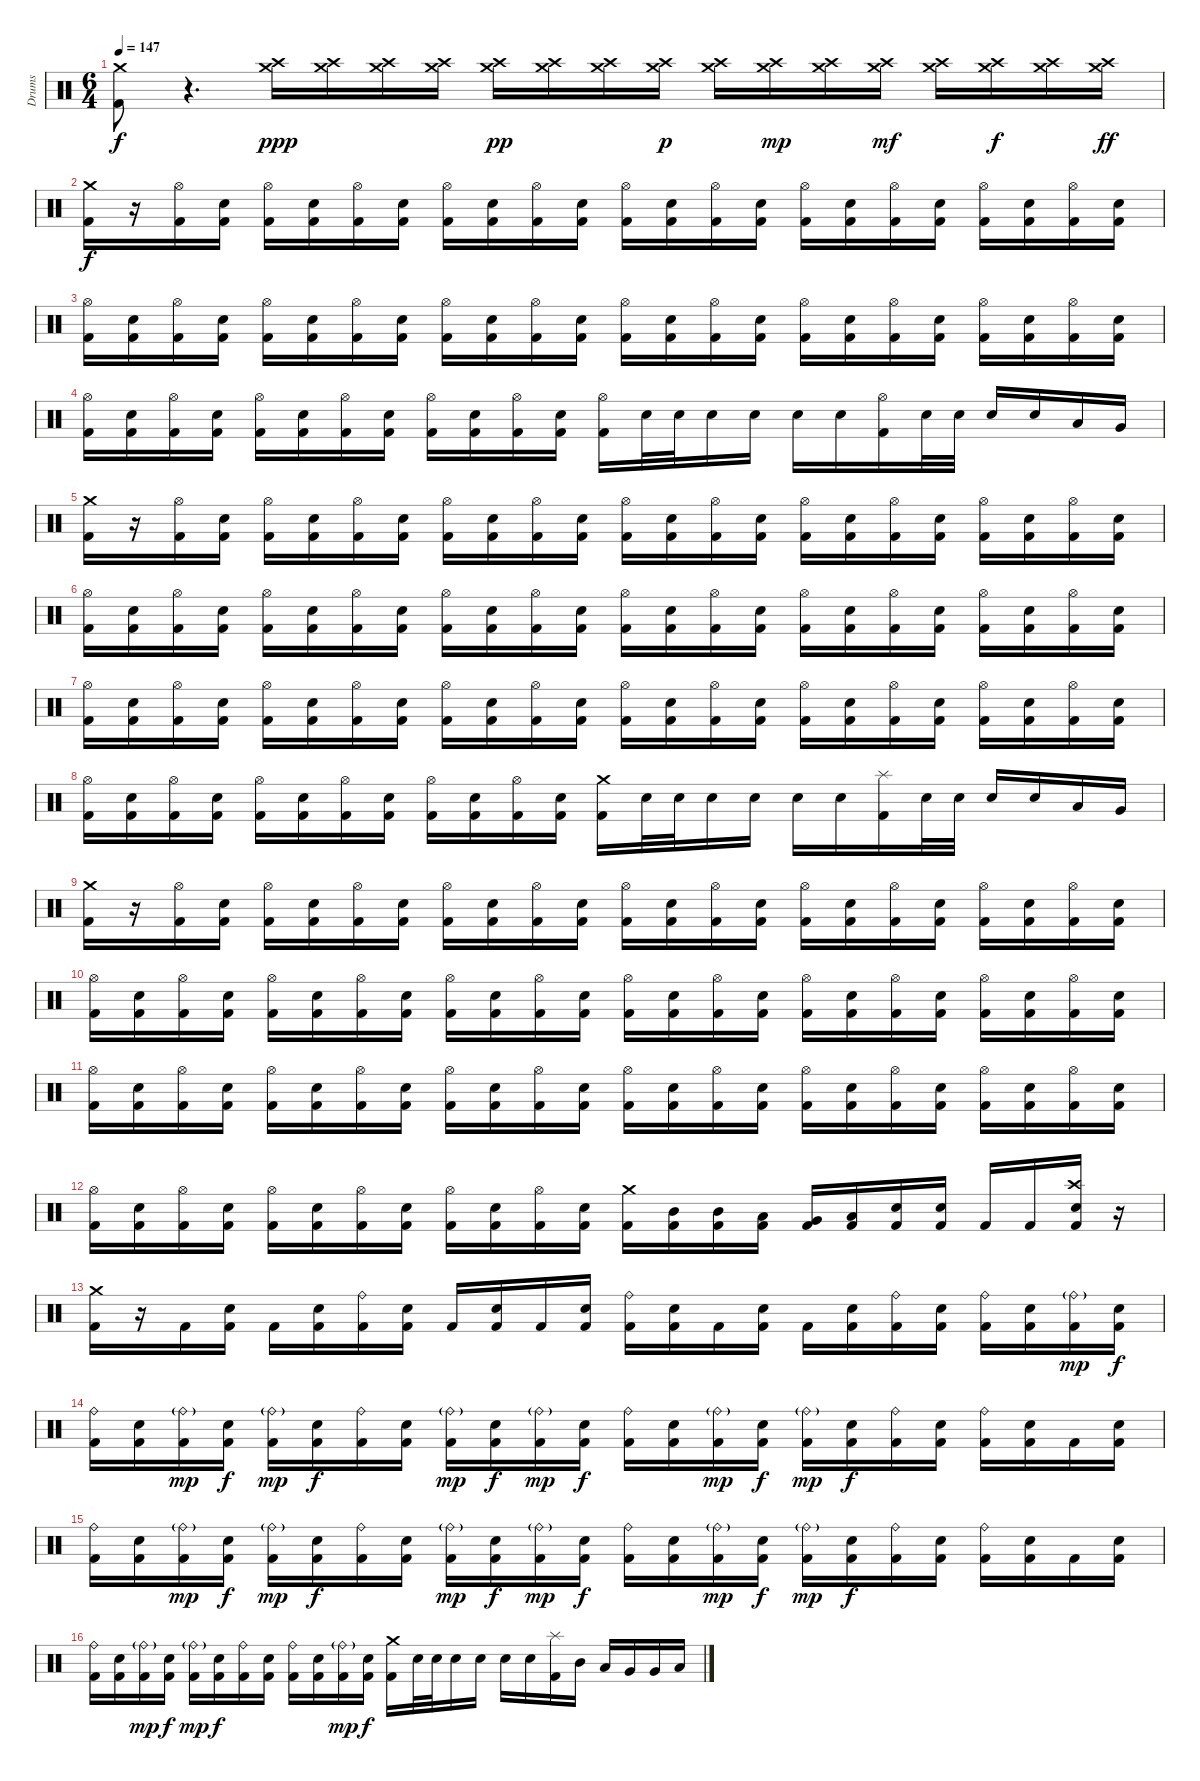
\track ("Drums" "Drums") {instrument percussion}
\staff {score}
\articulation defaults
\ts (6 4)
\tempo 147
\clef neutral
\ks c
("Crash medium (hit)" "Kick (hit) 2").8{dy f} r.4{d volume 0} ("Crash medium (hit)" "Crash high (hit)").16{dy ppp volume 16} ("Crash medium (hit)" "Crash high (hit)").16 ("Crash medium (hit)" "Crash high (hit)").16 ("Crash medium (hit)" "Crash high (hit)").16 ("Crash medium (hit)" "Crash high (hit)").16{dy pp} ("Crash medium (hit)" "Crash high (hit)").16 ("Crash medium (hit)" "Crash high (hit)").16 ("Crash medium (hit)" "Crash high (hit)").16{dy p} ("Crash medium (hit)" "Crash high (hit)").16 ("Crash medium (hit)" "Crash high (hit)").16{dy mp} ("Crash medium (hit)" "Crash high (hit)").16 ("Crash medium (hit)" "Crash high (hit)").16{dy mf} ("Crash medium (hit)" "Crash high (hit)").16 ("Crash medium (hit)" "Crash high (hit)").16{dy f} ("Crash medium (hit)" "Crash high (hit)").16 ("Crash medium (hit)" "Crash high (hit)").16{dy ff} |
\section ("" "")
("Crash medium (hit)" "Kick (hit) 2").16{dy f} r.16 ("Hi-Hat (open)" "Kick (hit) 2").16 ("Electric Snare (hit)" "Kick (hit) 2").16 ("Hi-Hat (open)" "Kick (hit) 2").16 ("Electric Snare (hit)" "Kick (hit) 2").16 ("Hi-Hat (open)" "Kick (hit) 2").16 ("Electric Snare (hit)" "Kick (hit) 2").16 ("Hi-Hat (open)" "Kick (hit) 2").16 ("Electric Snare (hit)" "Kick (hit) 2").16 ("Hi-Hat (open)" "Kick (hit) 2").16 ("Electric Snare (hit)" "Kick (hit) 2").16 ("Hi-Hat (open)" "Kick (hit) 2").16 ("Electric Snare (hit)" "Kick (hit) 2").16 ("Hi-Hat (open)" "Kick (hit) 2").16 ("Electric Snare (hit)" "Kick (hit) 2").16 ("Hi-Hat (open)" "Kick (hit) 2").16 ("Electric Snare (hit)" "Kick (hit) 2").16 ("Hi-Hat (open)" "Kick (hit) 2").16 ("Electric Snare (hit)" "Kick (hit) 2").16 ("Hi-Hat (open)" "Kick (hit) 2").16 ("Electric Snare (hit)" "Kick (hit) 2").16 ("Hi-Hat (open)" "Kick (hit) 2").16 ("Electric Snare (hit)" "Kick (hit) 2").16 |
("Hi-Hat (open)" "Kick (hit) 2").16 ("Electric Snare (hit)" "Kick (hit) 2").16 ("Hi-Hat (open)" "Kick (hit) 2").16 ("Electric Snare (hit)" "Kick (hit) 2").16 ("Hi-Hat (open)" "Kick (hit) 2").16 ("Electric Snare (hit)" "Kick (hit) 2").16 ("Hi-Hat (open)" "Kick (hit) 2").16 ("Electric Snare (hit)" "Kick (hit) 2").16 ("Hi-Hat (open)" "Kick (hit) 2").16 ("Electric Snare (hit)" "Kick (hit) 2").16 ("Hi-Hat (open)" "Kick (hit) 2").16 ("Electric Snare (hit)" "Kick (hit) 2").16 ("Hi-Hat (open)" "Kick (hit) 2").16 ("Electric Snare (hit)" "Kick (hit) 2").16 ("Hi-Hat (open)" "Kick (hit) 2").16 ("Electric Snare (hit)" "Kick (hit) 2").16 ("Hi-Hat (open)" "Kick (hit) 2").16 ("Electric Snare (hit)" "Kick (hit) 2").16 ("Hi-Hat (open)" "Kick (hit) 2").16 ("Electric Snare (hit)" "Kick (hit) 2").16 ("Hi-Hat (open)" "Kick (hit) 2").16 ("Electric Snare (hit)" "Kick (hit) 2").16 ("Hi-Hat (open)" "Kick (hit) 2").16 ("Electric Snare (hit)" "Kick (hit) 2").16 |
("Hi-Hat (open)" "Kick (hit) 2").16 ("Electric Snare (hit)" "Kick (hit) 2").16 ("Hi-Hat (open)" "Kick (hit) 2").16 ("Electric Snare (hit)" "Kick (hit) 2").16 ("Hi-Hat (open)" "Kick (hit) 2").16 ("Electric Snare (hit)" "Kick (hit) 2").16 ("Hi-Hat (open)" "Kick (hit) 2").16 ("Electric Snare (hit)" "Kick (hit) 2").16 ("Hi-Hat (open)" "Kick (hit) 2").16 ("Electric Snare (hit)" "Kick (hit) 2").16 ("Hi-Hat (open)" "Kick (hit) 2").16 ("Electric Snare (hit)" "Kick (hit) 2").16 ("Hi-Hat (open)" "Kick (hit) 2").16 "Electric Snare (hit)".32 "Electric Snare (hit)".32 "Electric Snare (hit)".16 "Electric Snare (hit)".16 "Electric Snare (hit)".16 "Electric Snare (hit)".16 ("Hi-Hat (open)" "Kick (hit) 2").16 "Electric Snare (hit)".32 "Electric Snare (hit)".32 "Electric Snare (hit)".16 "Electric Snare (hit)".16 "Low Tom (hit)".16 "Very Low Tom (hit)".16 |
("Crash medium (hit)" "Kick (hit) 2").16 r.16 ("Hi-Hat (open)" "Kick (hit) 2").16 ("Electric Snare (hit)" "Kick (hit) 2").16 ("Hi-Hat (open)" "Kick (hit) 2").16 ("Electric Snare (hit)" "Kick (hit) 2").16 ("Hi-Hat (open)" "Kick (hit) 2").16 ("Electric Snare (hit)" "Kick (hit) 2").16 ("Hi-Hat (open)" "Kick (hit) 2").16 ("Electric Snare (hit)" "Kick (hit) 2").16 ("Hi-Hat (open)" "Kick (hit) 2").16 ("Electric Snare (hit)" "Kick (hit) 2").16 ("Hi-Hat (open)" "Kick (hit) 2").16 ("Electric Snare (hit)" "Kick (hit) 2").16 ("Hi-Hat (open)" "Kick (hit) 2").16 ("Electric Snare (hit)" "Kick (hit) 2").16 ("Hi-Hat (open)" "Kick (hit) 2").16 ("Electric Snare (hit)" "Kick (hit) 2").16 ("Hi-Hat (open)" "Kick (hit) 2").16 ("Electric Snare (hit)" "Kick (hit) 2").16 ("Hi-Hat (open)" "Kick (hit) 2").16 ("Electric Snare (hit)" "Kick (hit) 2").16 ("Hi-Hat (open)" "Kick (hit) 2").16 ("Electric Snare (hit)" "Kick (hit) 2").16 |
("Hi-Hat (open)" "Kick (hit) 2").16 ("Electric Snare (hit)" "Kick (hit) 2").16 ("Hi-Hat (open)" "Kick (hit) 2").16 ("Electric Snare (hit)" "Kick (hit) 2").16 ("Hi-Hat (open)" "Kick (hit) 2").16 ("Electric Snare (hit)" "Kick (hit) 2").16 ("Hi-Hat (open)" "Kick (hit) 2").16 ("Electric Snare (hit)" "Kick (hit) 2").16 ("Hi-Hat (open)" "Kick (hit) 2").16 ("Electric Snare (hit)" "Kick (hit) 2").16 ("Hi-Hat (open)" "Kick (hit) 2").16 ("Electric Snare (hit)" "Kick (hit) 2").16 ("Hi-Hat (open)" "Kick (hit) 2").16 ("Electric Snare (hit)" "Kick (hit) 2").16 ("Hi-Hat (open)" "Kick (hit) 2").16 ("Electric Snare (hit)" "Kick (hit) 2").16 ("Hi-Hat (open)" "Kick (hit) 2").16 ("Electric Snare (hit)" "Kick (hit) 2").16 ("Hi-Hat (open)" "Kick (hit) 2").16 ("Electric Snare (hit)" "Kick (hit) 2").16 ("Hi-Hat (open)" "Kick (hit) 2").16 ("Electric Snare (hit)" "Kick (hit) 2").16 ("Hi-Hat (open)" "Kick (hit) 2").16 ("Electric Snare (hit)" "Kick (hit) 2").16 |
("Hi-Hat (open)" "Kick (hit) 2").16 ("Electric Snare (hit)" "Kick (hit) 2").16 ("Hi-Hat (open)" "Kick (hit) 2").16 ("Electric Snare (hit)" "Kick (hit) 2").16 ("Hi-Hat (open)" "Kick (hit) 2").16 ("Electric Snare (hit)" "Kick (hit) 2").16 ("Hi-Hat (open)" "Kick (hit) 2").16 ("Electric Snare (hit)" "Kick (hit) 2").16 ("Hi-Hat (open)" "Kick (hit) 2").16 ("Electric Snare (hit)" "Kick (hit) 2").16 ("Hi-Hat (open)" "Kick (hit) 2").16 ("Electric Snare (hit)" "Kick (hit) 2").16 ("Hi-Hat (open)" "Kick (hit) 2").16 ("Electric Snare (hit)" "Kick (hit) 2").16 ("Hi-Hat (open)" "Kick (hit) 2").16 ("Electric Snare (hit)" "Kick (hit) 2").16 ("Hi-Hat (open)" "Kick (hit) 2").16 ("Electric Snare (hit)" "Kick (hit) 2").16 ("Hi-Hat (open)" "Kick (hit) 2").16 ("Electric Snare (hit)" "Kick (hit) 2").16 ("Hi-Hat (open)" "Kick (hit) 2").16 ("Electric Snare (hit)" "Kick (hit) 2").16 ("Hi-Hat (open)" "Kick (hit) 2").16 ("Electric Snare (hit)" "Kick (hit) 2").16 |
("Hi-Hat (open)" "Kick (hit) 2").16 ("Electric Snare (hit)" "Kick (hit) 2").16 ("Hi-Hat (open)" "Kick (hit) 2").16 ("Electric Snare (hit)" "Kick (hit) 2").16 ("Hi-Hat (open)" "Kick (hit) 2").16 ("Electric Snare (hit)" "Kick (hit) 2").16 ("Hi-Hat (open)" "Kick (hit) 2").16 ("Electric Snare (hit)" "Kick (hit) 2").16 ("Hi-Hat (open)" "Kick (hit) 2").16 ("Electric Snare (hit)" "Kick (hit) 2").16 ("Hi-Hat (open)" "Kick (hit) 2").16 ("Electric Snare (hit)" "Kick (hit) 2").16 ("Crash medium (hit)" "Kick (hit) 2").16 "Electric Snare (hit)".32 "Electric Snare (hit)".32 "Electric Snare (hit)".16 "Electric Snare (hit)".16 "Electric Snare (hit)".16 "Electric Snare (hit)".16 ("Splash (hit)" "Kick (hit) 2").16 "Electric Snare (hit)".32 "Electric Snare (hit)".32 "Electric Snare (hit)".16 "Electric Snare (hit)".16 "Low Tom (hit)".16 "Very Low Tom (hit)".16 |
\section ("" "")
("Crash medium (hit)" "Kick (hit) 2").16 r.16 ("Hi-Hat (open)" "Kick (hit) 2").16 ("Electric Snare (hit)" "Kick (hit) 2").16 ("Hi-Hat (open)" "Kick (hit) 2").16 ("Electric Snare (hit)" "Kick (hit) 2").16 ("Hi-Hat (open)" "Kick (hit) 2").16 ("Electric Snare (hit)" "Kick (hit) 2").16 ("Hi-Hat (open)" "Kick (hit) 2").16 ("Electric Snare (hit)" "Kick (hit) 2").16 ("Hi-Hat (open)" "Kick (hit) 2").16 ("Electric Snare (hit)" "Kick (hit) 2").16 ("Hi-Hat (open)" "Kick (hit) 2").16 ("Electric Snare (hit)" "Kick (hit) 2").16 ("Hi-Hat (open)" "Kick (hit) 2").16 ("Electric Snare (hit)" "Kick (hit) 2").16 ("Hi-Hat (open)" "Kick (hit) 2").16 ("Electric Snare (hit)" "Kick (hit) 2").16 ("Hi-Hat (open)" "Kick (hit) 2").16 ("Electric Snare (hit)" "Kick (hit) 2").16 ("Hi-Hat (open)" "Kick (hit) 2").16 ("Electric Snare (hit)" "Kick (hit) 2").16 ("Hi-Hat (open)" "Kick (hit) 2").16 ("Electric Snare (hit)" "Kick (hit) 2").16 |
("Hi-Hat (open)" "Kick (hit) 2").16 ("Electric Snare (hit)" "Kick (hit) 2").16 ("Hi-Hat (open)" "Kick (hit) 2").16 ("Electric Snare (hit)" "Kick (hit) 2").16 ("Hi-Hat (open)" "Kick (hit) 2").16 ("Electric Snare (hit)" "Kick (hit) 2").16 ("Hi-Hat (open)" "Kick (hit) 2").16 ("Electric Snare (hit)" "Kick (hit) 2").16 ("Hi-Hat (open)" "Kick (hit) 2").16 ("Electric Snare (hit)" "Kick (hit) 2").16 ("Hi-Hat (open)" "Kick (hit) 2").16 ("Electric Snare (hit)" "Kick (hit) 2").16 ("Hi-Hat (open)" "Kick (hit) 2").16 ("Electric Snare (hit)" "Kick (hit) 2").16 ("Hi-Hat (open)" "Kick (hit) 2").16 ("Electric Snare (hit)" "Kick (hit) 2").16 ("Hi-Hat (open)" "Kick (hit) 2").16 ("Electric Snare (hit)" "Kick (hit) 2").16 ("Hi-Hat (open)" "Kick (hit) 2").16 ("Electric Snare (hit)" "Kick (hit) 2").16 ("Hi-Hat (open)" "Kick (hit) 2").16 ("Electric Snare (hit)" "Kick (hit) 2").16 ("Hi-Hat (open)" "Kick (hit) 2").16 ("Electric Snare (hit)" "Kick (hit) 2").16 |
("Hi-Hat (open)" "Kick (hit) 2").16 ("Electric Snare (hit)" "Kick (hit) 2").16 ("Hi-Hat (open)" "Kick (hit) 2").16 ("Electric Snare (hit)" "Kick (hit) 2").16 ("Hi-Hat (open)" "Kick (hit) 2").16 ("Electric Snare (hit)" "Kick (hit) 2").16 ("Hi-Hat (open)" "Kick (hit) 2").16 ("Electric Snare (hit)" "Kick (hit) 2").16 ("Hi-Hat (open)" "Kick (hit) 2").16 ("Electric Snare (hit)" "Kick (hit) 2").16 ("Hi-Hat (open)" "Kick (hit) 2").16 ("Electric Snare (hit)" "Kick (hit) 2").16 ("Hi-Hat (open)" "Kick (hit) 2").16 ("Electric Snare (hit)" "Kick (hit) 2").16 ("Hi-Hat (open)" "Kick (hit) 2").16 ("Electric Snare (hit)" "Kick (hit) 2").16 ("Hi-Hat (open)" "Kick (hit) 2").16 ("Electric Snare (hit)" "Kick (hit) 2").16 ("Hi-Hat (open)" "Kick (hit) 2").16 ("Electric Snare (hit)" "Kick (hit) 2").16 ("Hi-Hat (open)" "Kick (hit) 2").16 ("Electric Snare (hit)" "Kick (hit) 2").16 ("Hi-Hat (open)" "Kick (hit) 2").16 ("Electric Snare (hit)" "Kick (hit) 2").16 |
("Hi-Hat (open)" "Kick (hit) 2").16 ("Electric Snare (hit)" "Kick (hit) 2").16 ("Hi-Hat (open)" "Kick (hit) 2").16 ("Electric Snare (hit)" "Kick (hit) 2").16 ("Hi-Hat (open)" "Kick (hit) 2").16 ("Electric Snare (hit)" "Kick (hit) 2").16 ("Hi-Hat (open)" "Kick (hit) 2").16 ("Electric Snare (hit)" "Kick (hit) 2").16 ("Hi-Hat (open)" "Kick (hit) 2").16 ("Electric Snare (hit)" "Kick (hit) 2").16 ("Hi-Hat (open)" "Kick (hit) 2").16 ("Electric Snare (hit)" "Kick (hit) 2").16 ("Crash medium (hit)" "Kick (hit) 2").16 ("Mid Tom (hit)" "Kick (hit) 2").16 ("Mid Tom (hit)" "Kick (hit) 2").16 ("Low Tom (hit)" "Kick (hit) 2").16 ("Very Low Tom (hit)" "Kick (hit) 2").16 ("Low Floor Tom (hit)" "Kick (hit) 2").16 ("Electric Snare (hit)" "Kick (hit) 2").16 ("Electric Snare (hit)" "Kick (hit) 2").16 "Kick (hit) 2".16 "Kick (hit) 2".16 ("Crash high (hit)" "Electric Snare (hit)" "Kick (hit) 2").16 r.16 |
("Crash medium (hit)" "Kick (hit) 2").16 r.16 "Kick (hit) 2".16 ("Electric Snare (hit)" "Kick (hit) 2").16 "Kick (hit) 2".16 ("Electric Snare (hit)" "Kick (hit) 2").16 ("Ride (bell)" "Kick (hit) 2").16 ("Electric Snare (hit)" "Kick (hit) 2").16 "Kick (hit) 2".16 ("Electric Snare (hit)" "Kick (hit) 2").16 "Kick (hit) 2".16 ("Electric Snare (hit)" "Kick (hit) 2").16 ("Ride (bell)" "Kick (hit) 2").16 ("Electric Snare (hit)" "Kick (hit) 2").16 "Kick (hit) 2".16 ("Electric Snare (hit)" "Kick (hit) 2").16 "Kick (hit) 2".16 ("Electric Snare (hit)" "Kick (hit) 2").16 ("Ride (bell)" "Kick (hit) 2").16 ("Electric Snare (hit)" "Kick (hit) 2").16 ("Ride (bell)" "Kick (hit) 2").16 ("Electric Snare (hit)" "Kick (hit) 2").16 ("Ride (bell)"{g} "Kick (hit) 2").16{dy mp} ("Electric Snare (hit)" "Kick (hit) 2").16{dy f} |
("Ride (bell)" "Kick (hit) 2").16 ("Electric Snare (hit)" "Kick (hit) 2").16 ("Ride (bell)"{g} "Kick (hit) 2").16{dy mp} ("Electric Snare (hit)" "Kick (hit) 2").16{dy f} ("Ride (bell)"{g} "Kick (hit) 2").16{dy mp} ("Electric Snare (hit)" "Kick (hit) 2").16{dy f} ("Ride (bell)" "Kick (hit) 2").16 ("Electric Snare (hit)" "Kick (hit) 2").16 ("Ride (bell)"{g} "Kick (hit) 2").16{dy mp} ("Electric Snare (hit)" "Kick (hit) 2").16{dy f} ("Ride (bell)"{g} "Kick (hit) 2").16{dy mp} ("Electric Snare (hit)" "Kick (hit) 2").16{dy f} ("Ride (bell)" "Kick (hit) 2").16 ("Electric Snare (hit)" "Kick (hit) 2").16 ("Ride (bell)"{g} "Kick (hit) 2").16{dy mp} ("Electric Snare (hit)" "Kick (hit) 2").16{dy f} ("Ride (bell)"{g} "Kick (hit) 2").16{dy mp} ("Electric Snare (hit)" "Kick (hit) 2").16{dy f} ("Ride (bell)" "Kick (hit) 2").16 ("Electric Snare (hit)" "Kick (hit) 2").16 ("Ride (bell)" "Kick (hit) 2").16 ("Electric Snare (hit)" "Kick (hit) 2").16 "Kick (hit) 2".16 ("Electric Snare (hit)" "Kick (hit) 2").16 |
("Ride (bell)" "Kick (hit) 2").16 ("Electric Snare (hit)" "Kick (hit) 2").16 ("Ride (bell)"{g} "Kick (hit) 2").16{dy mp} ("Electric Snare (hit)" "Kick (hit) 2").16{dy f} ("Ride (bell)"{g} "Kick (hit) 2").16{dy mp} ("Electric Snare (hit)" "Kick (hit) 2").16{dy f} ("Ride (bell)" "Kick (hit) 2").16 ("Electric Snare (hit)" "Kick (hit) 2").16 ("Ride (bell)"{g} "Kick (hit) 2").16{dy mp} ("Electric Snare (hit)" "Kick (hit) 2").16{dy f} ("Ride (bell)"{g} "Kick (hit) 2").16{dy mp} ("Electric Snare (hit)" "Kick (hit) 2").16{dy f} ("Ride (bell)" "Kick (hit) 2").16 ("Electric Snare (hit)" "Kick (hit) 2").16 ("Ride (bell)"{g} "Kick (hit) 2").16{dy mp} ("Electric Snare (hit)" "Kick (hit) 2").16{dy f} ("Ride (bell)"{g} "Kick (hit) 2").16{dy mp} ("Electric Snare (hit)" "Kick (hit) 2").16{dy f} ("Ride (bell)" "Kick (hit) 2").16 ("Electric Snare (hit)" "Kick (hit) 2").16 ("Ride (bell)" "Kick (hit) 2").16 ("Electric Snare (hit)" "Kick (hit) 2").16 "Kick (hit) 2".16 ("Electric Snare (hit)" "Kick (hit) 2").16 |
("Ride (bell)" "Kick (hit) 2").16 ("Electric Snare (hit)" "Kick (hit) 2").16 ("Ride (bell)"{g} "Kick (hit) 2").16{dy mp} ("Electric Snare (hit)" "Kick (hit) 2").16{dy f} ("Ride (bell)"{g} "Kick (hit) 2").16{dy mp} ("Electric Snare (hit)" "Kick (hit) 2").16{dy f} ("Ride (bell)" "Kick (hit) 2").16 ("Electric Snare (hit)" "Kick (hit) 2").16 ("Ride (bell)" "Kick (hit) 2").16 ("Electric Snare (hit)" "Kick (hit) 2").16 ("Ride (bell)"{g} "Kick (hit) 2").16{dy mp} ("Electric Snare (hit)" "Kick (hit) 2").16{dy f} ("Crash medium (hit)" "Kick (hit) 2").16 "Electric Snare (hit)".32 "Electric Snare (hit)".32 "Electric Snare (hit)".16 "Electric Snare (hit)".16 "Electric Snare (hit)".16 "Electric Snare (hit)".16 ("Splash (hit)" "Kick (hit) 2").16 "Mid Tom (hit)".16 "Low Tom (hit)".16 "Very Low Tom (hit)".16 "Very Low Tom (hit)".16 "Low Floor Tom (hit)".16
